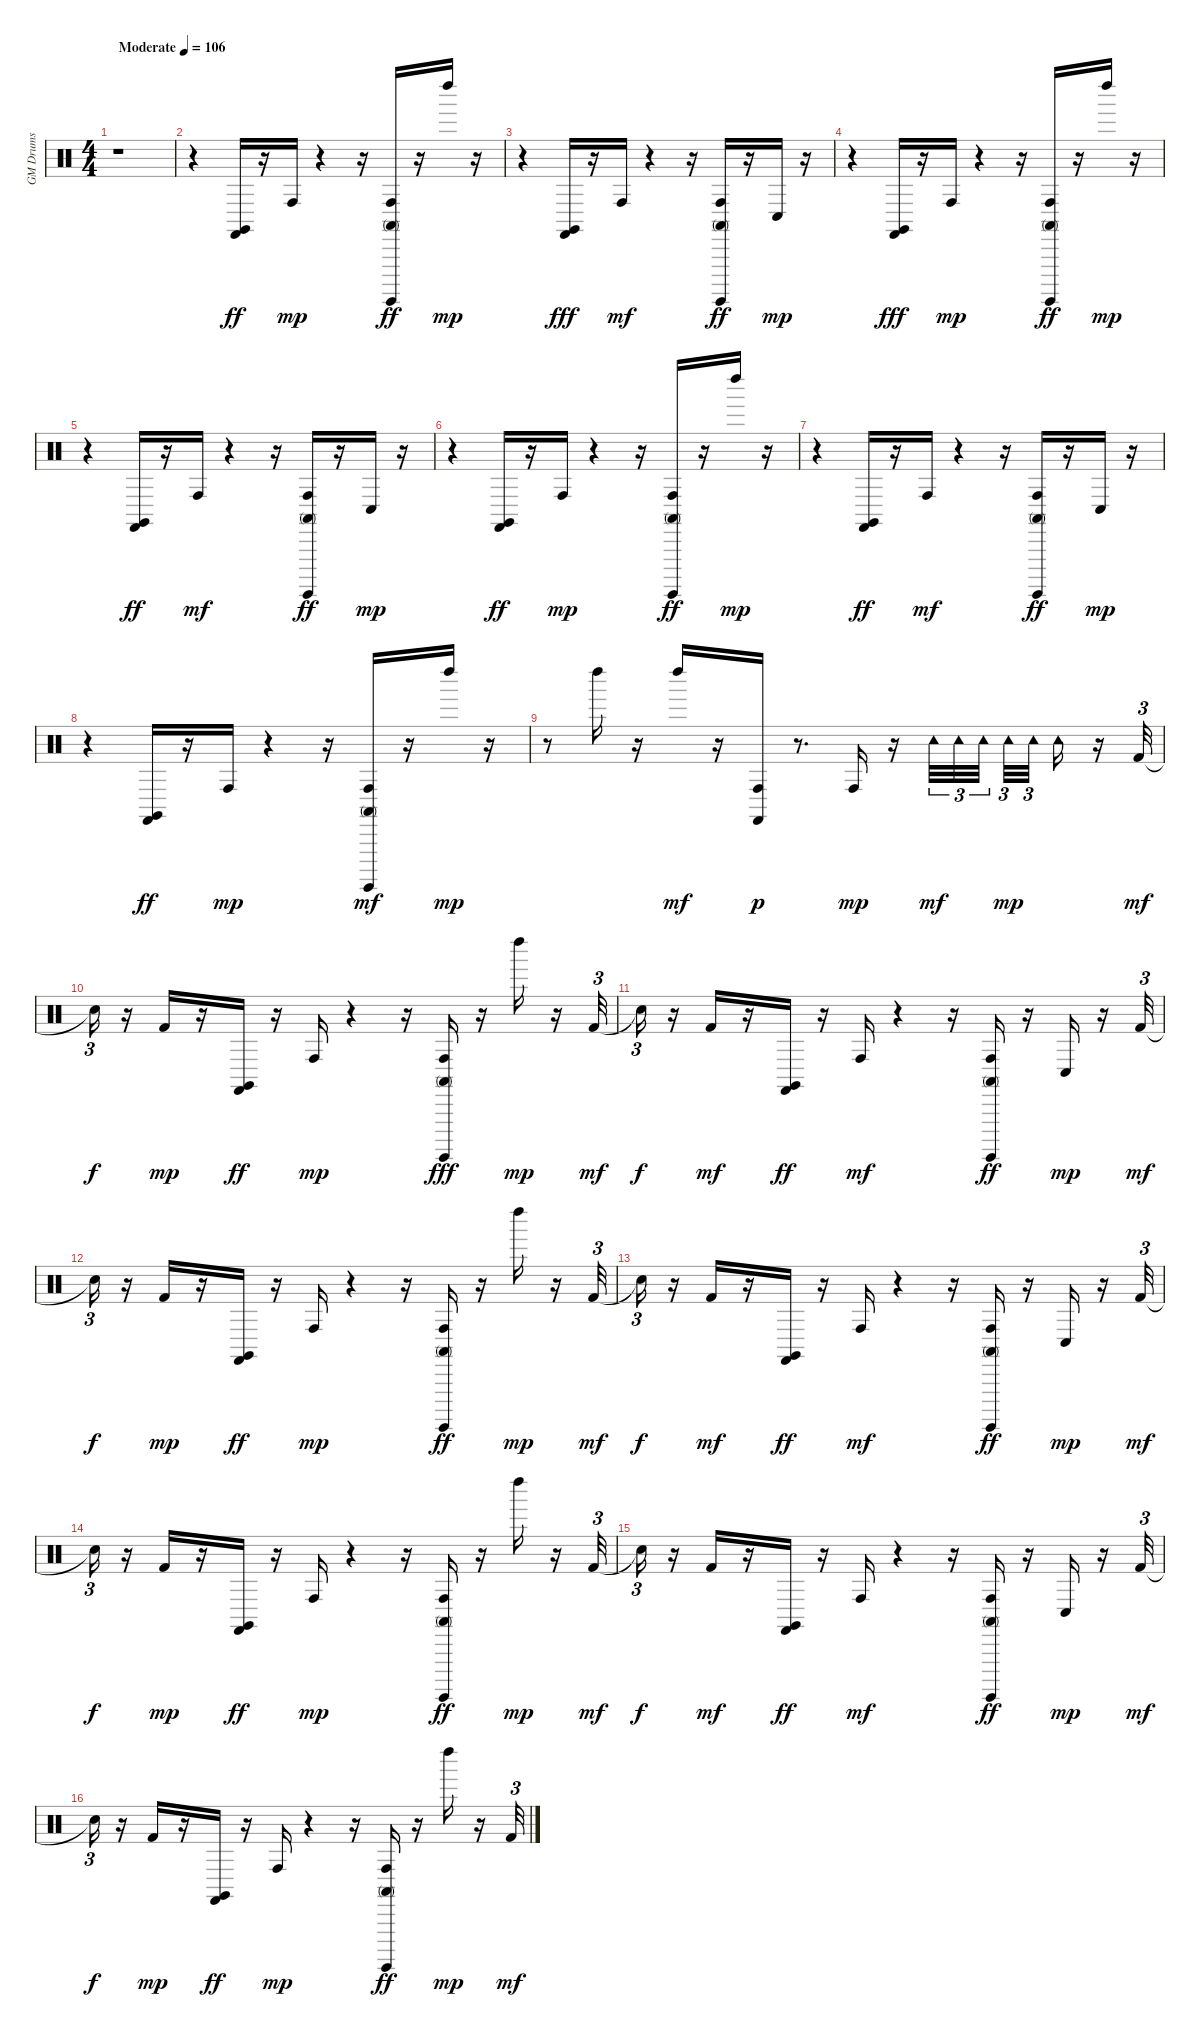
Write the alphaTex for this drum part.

\track ("GM Drums" "GM Drums") {instrument percussion}
\staff {score}
\articulation defaults
\ts (4 4)
\tempo (106 "Moderate")
\clef neutral
\ks c
r.1{dy ff} |
r.4 ("Claves (hit)" "Castanets (hit)").16 r.16 "Conga high (hit)".16{dy mp} r.4 r.16 ("Conga high (mute)" "Conga high (hit)" "Surdo (hit)").16{dy ff} r.16 "Left Maraca (hit)".16{dy mp} r.16 |
r.4 ("Claves (hit)" "Castanets (hit)").16{dy fff} r.16 "Conga high (hit)".16{dy mf} r.4 r.16 ("Conga high (mute)" "Conga high (hit)" "Surdo (hit)").16{dy ff} r.16 "Conga low (hit)".16{dy mp} r.16 |
r.4 ("Claves (hit)" "Castanets (hit)").16{dy fff} r.16 "Conga high (hit)".16{dy mp} r.4 r.16 ("Conga high (mute)" "Conga high (hit)" "Surdo (hit)").16{dy ff} r.16 "Left Maraca (hit)".16{dy mp} r.16 |
r.4 ("Claves (hit)" "Castanets (hit)").16{dy ff} r.16 "Conga high (hit)".16{dy mf} r.4 r.16 ("Conga high (mute)" "Conga high (hit)" "Surdo (hit)").16{dy ff} r.16 "Conga low (hit)".16{dy mp} r.16 |
r.4 ("Claves (hit)" "Castanets (hit)").16{dy ff} r.16 "Conga high (hit)".16{dy mp} r.4 r.16 ("Conga high (mute)" "Conga high (hit)" "Surdo (hit)").16{dy ff} r.16 "Left Maraca (hit)".16{dy mp} r.16 |
r.4 ("Claves (hit)" "Castanets (hit)").16{dy ff} r.16 "Conga high (hit)".16{dy mf} r.4 r.16 ("Conga high (mute)" "Conga high (hit)" "Surdo (hit)").16{dy ff} r.16 "Conga low (hit)".16{dy mp} r.16 |
r.4 ("Claves (hit)" "Castanets (hit)").16{dy ff} r.16 "Conga high (hit)".16{dy mp} r.4 r.16 ("Conga high (mute)" "Conga high (hit)" "Surdo (hit)").16{dy mf} r.16 "Left Maraca (hit)".16{dy mp} r.16 |
r.8 "Left Maraca (hit)".16 r.16 "Left Maraca (hit)".16{dy mf} r.16 ("Conga high (hit)" "Castanets (hit)").16{dy p} r.8{d} "Conga high (hit)".16{dy mp} r.16 "Tambourine (hit)".32{tu (3 2) dy mf} "Tambourine (hit)".32{tu (3 2)} "Tambourine (hit)".32{tu (3 2) beam splitsecondary} "Tambourine (hit)".32{tu (3 2) dy mp} "Tambourine (hit)".32{tu (3 2) beam splitsecondary} "Tambourine (hit)".16 r.16 "Kick (hit) 2".32{tu (3 2) dy mf} |
"Snare (hit)"{t}.16{tu (3 2) dy f} r.16 "Kick (hit) 2".16{dy mp} r.16 ("Claves (hit)" "Castanets (hit)").16{dy ff} r.16 "Conga high (hit)".16{dy mp} r.4 r.16 ("Conga high (mute)" "Conga high (hit)" "Surdo (hit)").16{dy fff} r.16 "Left Maraca (hit)".16{dy mp} r.16 "Kick (hit) 2".32{tu (3 2) dy mf} |
"Snare (hit)"{t}.16{tu (3 2) dy f} r.16 "Kick (hit) 2".16{dy mf} r.16 ("Claves (hit)" "Castanets (hit)").16{dy ff} r.16 "Conga high (hit)".16{dy mf} r.4 r.16 ("Conga high (mute)" "Conga high (hit)" "Surdo (hit)").16{dy ff} r.16 "Conga low (hit)".16{dy mp} r.16 "Kick (hit) 2".32{tu (3 2) dy mf} |
"Snare (hit)"{t}.16{tu (3 2) dy f} r.16 "Kick (hit) 2".16{dy mp} r.16 ("Claves (hit)" "Castanets (hit)").16{dy ff} r.16 "Conga high (hit)".16{dy mp} r.4 r.16 ("Conga high (mute)" "Conga high (hit)" "Surdo (hit)").16{dy ff} r.16 "Left Maraca (hit)".16{dy mp} r.16 "Kick (hit) 2".32{tu (3 2) dy mf} |
"Snare (hit)"{t}.16{tu (3 2) dy f} r.16 "Kick (hit) 2".16{dy mf} r.16 ("Claves (hit)" "Castanets (hit)").16{dy ff} r.16 "Conga high (hit)".16{dy mf} r.4 r.16 ("Conga high (mute)" "Conga high (hit)" "Surdo (hit)").16{dy ff} r.16 "Conga low (hit)".16{dy mp} r.16 "Kick (hit) 2".32{tu (3 2) dy mf} |
"Snare (hit)"{t}.16{tu (3 2) dy f} r.16 "Kick (hit) 2".16{dy mp} r.16 ("Claves (hit)" "Castanets (hit)").16{dy ff} r.16 "Conga high (hit)".16{dy mp} r.4 r.16 ("Conga high (mute)" "Conga high (hit)" "Surdo (hit)").16{dy ff} r.16 "Left Maraca (hit)".16{dy mp} r.16 "Kick (hit) 2".32{tu (3 2) dy mf} |
"Snare (hit)"{t}.16{tu (3 2) dy f} r.16 "Kick (hit) 2".16{dy mf} r.16 ("Claves (hit)" "Castanets (hit)").16{dy ff} r.16 "Conga high (hit)".16{dy mf} r.4 r.16 ("Conga high (mute)" "Conga high (hit)" "Surdo (hit)").16{dy ff} r.16 "Conga low (hit)".16{dy mp} r.16 "Kick (hit) 2".32{tu (3 2) dy mf} |
"Snare (hit)"{t}.16{tu (3 2) dy f} r.16 "Kick (hit) 2".16{dy mp} r.16 ("Claves (hit)" "Castanets (hit)").16{dy ff} r.16 "Conga high (hit)".16{dy mp} r.4 r.16 ("Conga high (mute)" "Conga high (hit)" "Surdo (hit)").16{dy ff} r.16 "Left Maraca (hit)".16{dy mp} r.16 "Kick (hit) 2".32{tu (3 2) dy mf}
